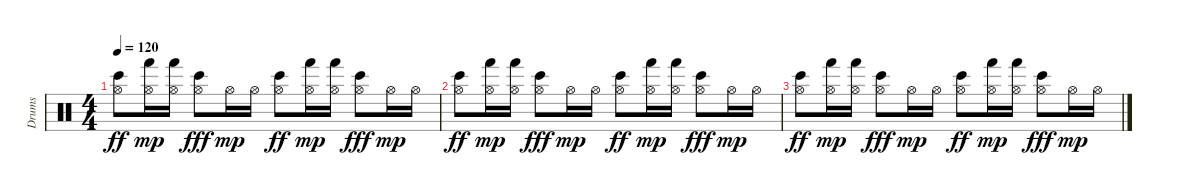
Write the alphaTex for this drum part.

\track ("Drums" "Drums") {instrument percussion}
\staff {score}
\articulation defaults
\ts (4 4)
\tempo 120
\clef neutral
\ks c
("Hi-Hat (open)" "Bongo High (hit)").8{dy ff} ("Hi-Hat (open)" "Hand (hit)").16{dy mp} ("Hi-Hat (open)" "Hand (hit)").16 ("Hi-Hat (open)" "Bongo High (hit)").8{dy fff} "Hi-Hat (open)".16{dy mp} "Hi-Hat (open)".16 ("Hi-Hat (open)" "Bongo High (hit)").8{dy ff} ("Hi-Hat (open)" "Hand (hit)").16{dy mp} ("Hi-Hat (open)" "Hand (hit)").16 ("Hi-Hat (open)" "Bongo High (hit)").8{dy fff} "Hi-Hat (open)".16{dy mp} "Hi-Hat (open)".16 |
("Hi-Hat (open)" "Bongo High (hit)").8{dy ff} ("Hi-Hat (open)" "Hand (hit)").16{dy mp} ("Hi-Hat (open)" "Hand (hit)").16 ("Hi-Hat (open)" "Bongo High (hit)").8{dy fff} "Hi-Hat (open)".16{dy mp} "Hi-Hat (open)".16 ("Hi-Hat (open)" "Bongo High (hit)").8{dy ff} ("Hi-Hat (open)" "Hand (hit)").16{dy mp} ("Hi-Hat (open)" "Hand (hit)").16 ("Hi-Hat (open)" "Bongo High (hit)").8{dy fff} "Hi-Hat (open)".16{dy mp} "Hi-Hat (open)".16 |
("Hi-Hat (open)" "Bongo High (hit)").8{dy ff} ("Hi-Hat (open)" "Hand (hit)").16{dy mp} ("Hi-Hat (open)" "Hand (hit)").16 ("Hi-Hat (open)" "Bongo High (hit)").8{dy fff} "Hi-Hat (open)".16{dy mp} "Hi-Hat (open)".16 ("Hi-Hat (open)" "Bongo High (hit)").8{dy ff} ("Hi-Hat (open)" "Hand (hit)").16{dy mp} ("Hi-Hat (open)" "Hand (hit)").16 ("Hi-Hat (open)" "Bongo High (hit)").8{dy fff} "Hi-Hat (open)".16{dy mp} "Hi-Hat (open)".16
